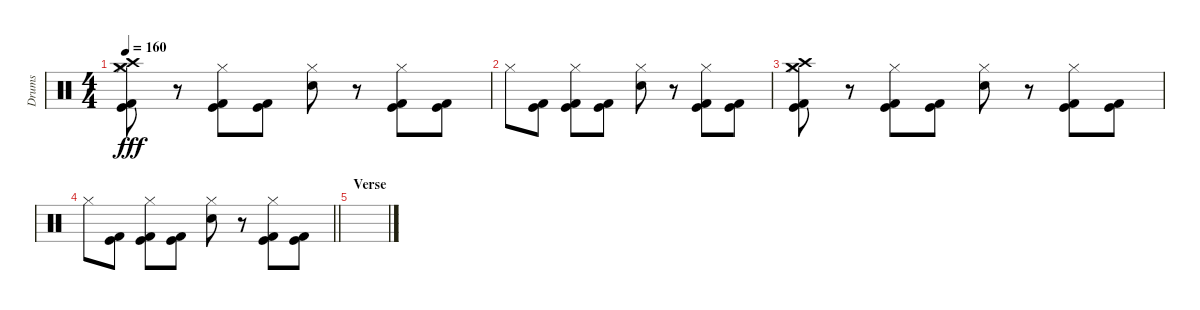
\track ("Drums" "Drums") {instrument percussion}
\staff {score}
\articulation defaults
\ts (4 4)
\tempo 160
\clef neutral
\ks c
("Kick (hit) 2" "Kick (hit)" "Hi-Hat (closed)" "Crash high (hit)" "Crash medium (hit)").8{dy fff} r.8 ("Kick (hit) 2" "Kick (hit)" "Hi-Hat (closed)").8 ("Kick (hit) 2" "Kick (hit)").8 ("Electric Snare (hit)" "Hi-Hat (closed)").8 r.8 ("Kick (hit) 2" "Kick (hit)" "Hi-Hat (closed)").8 ("Kick (hit) 2" "Kick (hit)").8 |
"Hi-Hat (closed)".8 ("Kick (hit) 2" "Kick (hit)").8 ("Kick (hit) 2" "Kick (hit)" "Hi-Hat (closed)").8 ("Kick (hit) 2" "Kick (hit)").8 ("Electric Snare (hit)" "Hi-Hat (closed)").8 r.8 ("Kick (hit) 2" "Kick (hit)" "Hi-Hat (closed)").8 ("Kick (hit) 2" "Kick (hit)").8 |
("Kick (hit) 2" "Kick (hit)" "Hi-Hat (closed)" "Crash high (hit)" "Crash medium (hit)").8 r.8 ("Kick (hit) 2" "Kick (hit)" "Hi-Hat (closed)").8 ("Kick (hit) 2" "Kick (hit)").8 ("Electric Snare (hit)" "Hi-Hat (closed)").8 r.8 ("Kick (hit) 2" "Kick (hit)" "Hi-Hat (closed)").8 ("Kick (hit) 2" "Kick (hit)").8 |
\barLineRight lightlight "Hi-Hat (closed)".8
("Kick (hit) 2" "Kick (hit)").8 ("Kick (hit) 2" "Kick (hit)" "Hi-Hat (closed)").8 ("Kick (hit) 2" "Kick (hit)").8 ("Electric Snare (hit)" "Hi-Hat (closed)").8 r.8 ("Kick (hit) 2" "Kick (hit)" "Hi-Hat (closed)").8 ("Kick (hit) 2" "Kick (hit)").8 |
\section ("" "Verse")
